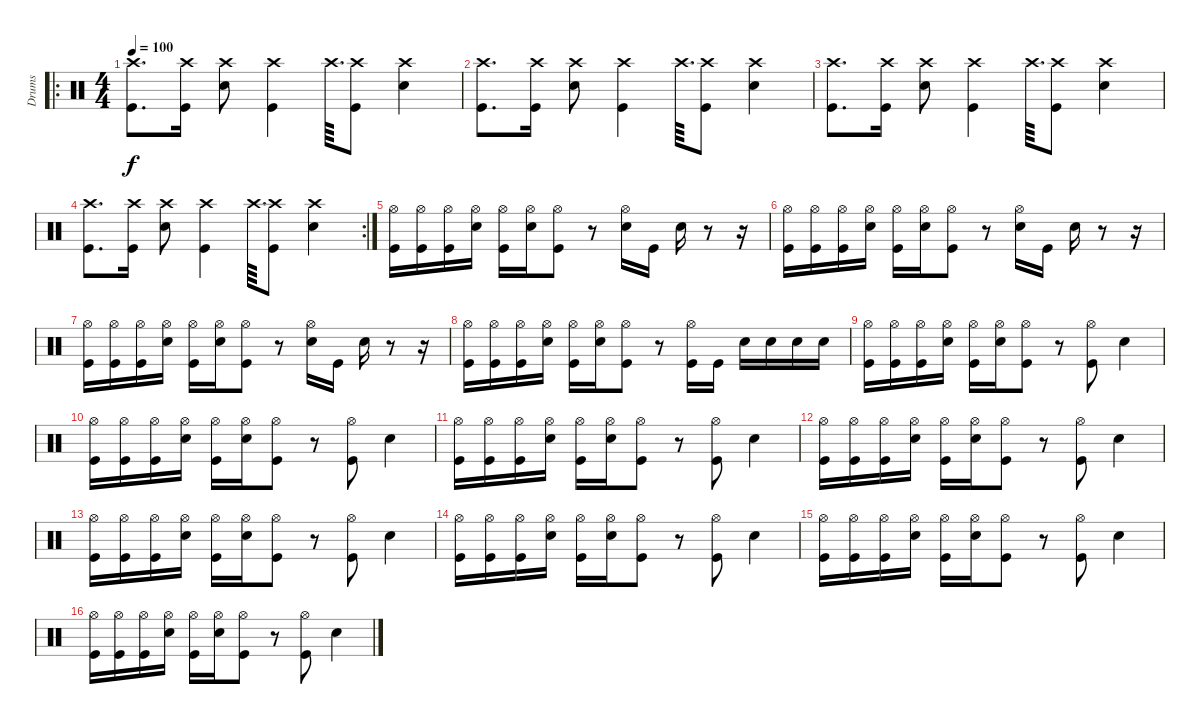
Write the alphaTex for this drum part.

\track ("Drums" "Drums") {instrument percussion}
\staff {score}
\articulation defaults
\ro
\ts (4 4)
\tempo 100
\clef neutral
\ks c
("Crash high (hit)" "Kick (hit)").8{d dy f} ("Crash high (hit)" "Kick (hit)").16 ("Crash high (hit)" "Snare (hit) 2").8 ("Crash high (hit)" "Kick (hit)").4 "Crash high (hit)".64{d} ("Crash high (hit)" "Kick (hit)").8 ("Crash high (hit)" "Snare (hit) 2").4 |
("Crash high (hit)" "Kick (hit)").8{d} ("Crash high (hit)" "Kick (hit)").16 ("Crash high (hit)" "Snare (hit) 2").8 ("Crash high (hit)" "Kick (hit)").4 "Crash high (hit)".64{d} ("Crash high (hit)" "Kick (hit)").8 ("Crash high (hit)" "Snare (hit) 2").4 |
("Crash high (hit)" "Kick (hit)").8{d} ("Crash high (hit)" "Kick (hit)").16 ("Crash high (hit)" "Snare (hit) 2").8 ("Crash high (hit)" "Kick (hit)").4 "Crash high (hit)".64{d} ("Crash high (hit)" "Kick (hit)").8 ("Crash high (hit)" "Snare (hit) 2").4 |
\rc 2
("Crash high (hit)" "Kick (hit)").8{d} ("Crash high (hit)" "Kick (hit)").16 ("Crash high (hit)" "Snare (hit) 2").8 ("Crash high (hit)" "Kick (hit)").4 "Crash high (hit)".64{d} ("Crash high (hit)" "Kick (hit)").8 ("Crash high (hit)" "Snare (hit) 2").4 |
("Hi-Hat (open)" "Kick (hit)").16 ("Hi-Hat (open)" "Kick (hit)").16 ("Hi-Hat (open)" "Kick (hit)").16 ("Hi-Hat (open)" "Snare (hit) 2").16 ("Hi-Hat (open)" "Kick (hit)").16 ("Hi-Hat (open)" "Snare (hit) 2").16 ("Hi-Hat (open)" "Kick (hit)").8 r.8 ("Hi-Hat (open)" "Snare (hit) 2").16 "Kick (hit)".16 "Snare (hit) 2".16 r.8 r.16 |
("Hi-Hat (open)" "Kick (hit)").16 ("Hi-Hat (open)" "Kick (hit)").16 ("Hi-Hat (open)" "Kick (hit)").16 ("Hi-Hat (open)" "Snare (hit) 2").16 ("Hi-Hat (open)" "Kick (hit)").16 ("Hi-Hat (open)" "Snare (hit) 2").16 ("Hi-Hat (open)" "Kick (hit)").8 r.8 ("Hi-Hat (open)" "Snare (hit) 2").16 "Kick (hit)".16 "Snare (hit) 2".16 r.8 r.16 |
("Hi-Hat (open)" "Kick (hit)").16 ("Hi-Hat (open)" "Kick (hit)").16 ("Hi-Hat (open)" "Kick (hit)").16 ("Hi-Hat (open)" "Snare (hit) 2").16 ("Hi-Hat (open)" "Kick (hit)").16 ("Hi-Hat (open)" "Snare (hit) 2").16 ("Hi-Hat (open)" "Kick (hit)").8 r.8 ("Hi-Hat (open)" "Snare (hit) 2").16 "Kick (hit)".16 "Snare (hit) 2".16 r.8 r.16 |
("Hi-Hat (open)" "Kick (hit)").16 ("Hi-Hat (open)" "Kick (hit)").16 ("Hi-Hat (open)" "Kick (hit)").16 ("Hi-Hat (open)" "Snare (hit) 2").16 ("Hi-Hat (open)" "Kick (hit)").16 ("Hi-Hat (open)" "Snare (hit) 2").16 ("Hi-Hat (open)" "Kick (hit)").8 r.8 ("Hi-Hat (open)" "Kick (hit)").16 "Kick (hit)".16 "Snare (hit) 2".16 "Snare (hit) 2".16 "Snare (hit) 2".16 "Snare (hit) 2".16 |
("Hi-Hat (open)" "Kick (hit)").16 ("Hi-Hat (open)" "Kick (hit)").16 ("Hi-Hat (open)" "Kick (hit)").16 ("Hi-Hat (open)" "Snare (hit) 2").16 ("Hi-Hat (open)" "Kick (hit)").16 ("Hi-Hat (open)" "Snare (hit) 2").16 ("Hi-Hat (open)" "Kick (hit)").8 r.8 ("Hi-Hat (open)" "Kick (hit)").8 "Snare (hit) 2".4 |
("Hi-Hat (open)" "Kick (hit)").16 ("Hi-Hat (open)" "Kick (hit)").16 ("Hi-Hat (open)" "Kick (hit)").16 ("Hi-Hat (open)" "Snare (hit) 2").16 ("Hi-Hat (open)" "Kick (hit)").16 ("Hi-Hat (open)" "Snare (hit) 2").16 ("Hi-Hat (open)" "Kick (hit)").8 r.8 ("Hi-Hat (open)" "Kick (hit)").8 "Snare (hit) 2".4 |
("Hi-Hat (open)" "Kick (hit)").16 ("Hi-Hat (open)" "Kick (hit)").16 ("Hi-Hat (open)" "Kick (hit)").16 ("Hi-Hat (open)" "Snare (hit) 2").16 ("Hi-Hat (open)" "Kick (hit)").16 ("Hi-Hat (open)" "Snare (hit) 2").16 ("Hi-Hat (open)" "Kick (hit)").8 r.8 ("Hi-Hat (open)" "Kick (hit)").8 "Snare (hit) 2".4 |
("Hi-Hat (open)" "Kick (hit)").16 ("Hi-Hat (open)" "Kick (hit)").16 ("Hi-Hat (open)" "Kick (hit)").16 ("Hi-Hat (open)" "Snare (hit) 2").16 ("Hi-Hat (open)" "Kick (hit)").16 ("Hi-Hat (open)" "Snare (hit) 2").16 ("Hi-Hat (open)" "Kick (hit)").8 r.8 ("Hi-Hat (open)" "Kick (hit)").8 "Snare (hit) 2".4 |
("Hi-Hat (open)" "Kick (hit)").16 ("Hi-Hat (open)" "Kick (hit)").16 ("Hi-Hat (open)" "Kick (hit)").16 ("Hi-Hat (open)" "Snare (hit) 2").16 ("Hi-Hat (open)" "Kick (hit)").16 ("Hi-Hat (open)" "Snare (hit) 2").16 ("Hi-Hat (open)" "Kick (hit)").8 r.8 ("Hi-Hat (open)" "Kick (hit)").8 "Snare (hit) 2".4 |
("Hi-Hat (open)" "Kick (hit)").16 ("Hi-Hat (open)" "Kick (hit)").16 ("Hi-Hat (open)" "Kick (hit)").16 ("Hi-Hat (open)" "Snare (hit) 2").16 ("Hi-Hat (open)" "Kick (hit)").16 ("Hi-Hat (open)" "Snare (hit) 2").16 ("Hi-Hat (open)" "Kick (hit)").8 r.8 ("Hi-Hat (open)" "Kick (hit)").8 "Snare (hit) 2".4 |
("Hi-Hat (open)" "Kick (hit)").16 ("Hi-Hat (open)" "Kick (hit)").16 ("Hi-Hat (open)" "Kick (hit)").16 ("Hi-Hat (open)" "Snare (hit) 2").16 ("Hi-Hat (open)" "Kick (hit)").16 ("Hi-Hat (open)" "Snare (hit) 2").16 ("Hi-Hat (open)" "Kick (hit)").8 r.8 ("Hi-Hat (open)" "Kick (hit)").8 "Snare (hit) 2".4 |
("Hi-Hat (open)" "Kick (hit)").16 ("Hi-Hat (open)" "Kick (hit)").16 ("Hi-Hat (open)" "Kick (hit)").16 ("Hi-Hat (open)" "Snare (hit) 2").16 ("Hi-Hat (open)" "Kick (hit)").16 ("Hi-Hat (open)" "Snare (hit) 2").16 ("Hi-Hat (open)" "Kick (hit)").8 r.8 ("Hi-Hat (open)" "Kick (hit)").8 "Snare (hit) 2".4
